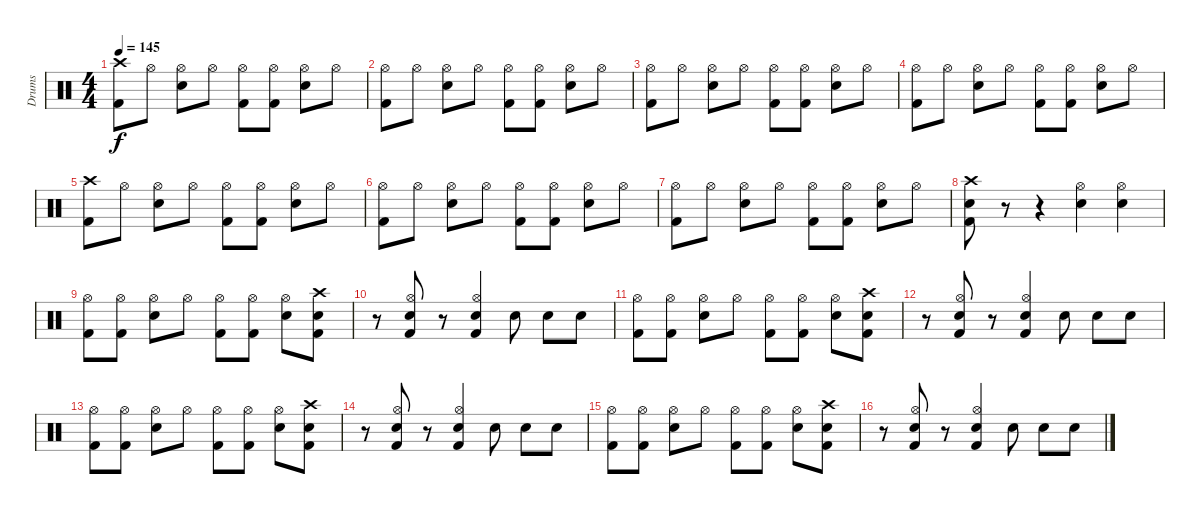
\track ("Drums" "Drums") {instrument percussion}
\staff {score}
\articulation defaults
\ts (4 4)
\tempo 145
\clef neutral
\ks c
("Crash high (hit)" "Kick (hit) 2").8{dy f} "Hi-Hat (open)".8 ("Hi-Hat (open)" "Electric Snare (hit)").8 "Hi-Hat (open)".8 ("Hi-Hat (open)" "Kick (hit) 2").8 ("Hi-Hat (open)" "Kick (hit) 2").8 ("Hi-Hat (open)" "Electric Snare (hit)").8 "Hi-Hat (open)".8 |
("Hi-Hat (open)" "Kick (hit) 2").8 "Hi-Hat (open)".8 ("Hi-Hat (open)" "Electric Snare (hit)").8 "Hi-Hat (open)".8 ("Hi-Hat (open)" "Kick (hit) 2").8 ("Hi-Hat (open)" "Kick (hit) 2").8 ("Hi-Hat (open)" "Electric Snare (hit)").8 "Hi-Hat (open)".8 |
("Hi-Hat (open)" "Kick (hit) 2").8 "Hi-Hat (open)".8 ("Hi-Hat (open)" "Electric Snare (hit)").8 "Hi-Hat (open)".8 ("Hi-Hat (open)" "Kick (hit) 2").8 ("Hi-Hat (open)" "Kick (hit) 2").8 ("Hi-Hat (open)" "Electric Snare (hit)").8 "Hi-Hat (open)".8 |
("Hi-Hat (open)" "Kick (hit) 2").8 "Hi-Hat (open)".8 ("Hi-Hat (open)" "Electric Snare (hit)").8 "Hi-Hat (open)".8 ("Hi-Hat (open)" "Kick (hit) 2").8 ("Hi-Hat (open)" "Kick (hit) 2").8 ("Hi-Hat (open)" "Electric Snare (hit)").8 "Hi-Hat (open)".8 |
("Crash high (hit)" "Kick (hit) 2").8 "Hi-Hat (open)".8 ("Hi-Hat (open)" "Electric Snare (hit)").8 "Hi-Hat (open)".8 ("Hi-Hat (open)" "Kick (hit) 2").8 ("Hi-Hat (open)" "Kick (hit) 2").8 ("Hi-Hat (open)" "Electric Snare (hit)").8 "Hi-Hat (open)".8 |
("Hi-Hat (open)" "Kick (hit) 2").8 "Hi-Hat (open)".8 ("Hi-Hat (open)" "Electric Snare (hit)").8 "Hi-Hat (open)".8 ("Hi-Hat (open)" "Kick (hit) 2").8 ("Hi-Hat (open)" "Kick (hit) 2").8 ("Hi-Hat (open)" "Electric Snare (hit)").8 "Hi-Hat (open)".8 |
("Hi-Hat (open)" "Kick (hit) 2").8 "Hi-Hat (open)".8 ("Hi-Hat (open)" "Electric Snare (hit)").8 "Hi-Hat (open)".8 ("Hi-Hat (open)" "Kick (hit) 2").8 ("Hi-Hat (open)" "Kick (hit) 2").8 ("Hi-Hat (open)" "Electric Snare (hit)").8 "Hi-Hat (open)".8 |
("Crash high (hit)" "Electric Snare (hit)" "Kick (hit) 2").8 r.8 r.4 ("Hi-Hat (open)" "Electric Snare (hit)").4 ("Hi-Hat (open)" "Electric Snare (hit)").4 |
("Hi-Hat (open)" "Kick (hit) 2").8 ("Hi-Hat (open)" "Kick (hit) 2").8 ("Hi-Hat (open)" "Electric Snare (hit)").8 "Hi-Hat (open)".8 ("Hi-Hat (open)" "Kick (hit) 2").8 ("Hi-Hat (open)" "Kick (hit) 2").8 ("Hi-Hat (open)" "Electric Snare (hit)").8 ("Crash high (hit)" "Electric Snare (hit)" "Kick (hit) 2").8 |
r.8 ("Hi-Hat (open)" "Electric Snare (hit)" "Kick (hit) 2").8 r.8 ("Hi-Hat (open)" "Electric Snare (hit)" "Kick (hit) 2").4 "Electric Snare (hit)".8 "Electric Snare (hit)".8 "Electric Snare (hit)".8 |
("Hi-Hat (open)" "Kick (hit) 2").8 ("Hi-Hat (open)" "Kick (hit) 2").8 ("Hi-Hat (open)" "Electric Snare (hit)").8 "Hi-Hat (open)".8 ("Hi-Hat (open)" "Kick (hit) 2").8 ("Hi-Hat (open)" "Kick (hit) 2").8 ("Hi-Hat (open)" "Electric Snare (hit)").8 ("Crash high (hit)" "Electric Snare (hit)" "Kick (hit) 2").8 |
r.8 ("Hi-Hat (open)" "Electric Snare (hit)" "Kick (hit) 2").8 r.8 ("Hi-Hat (open)" "Electric Snare (hit)" "Kick (hit) 2").4 "Electric Snare (hit)".8 "Electric Snare (hit)".8 "Electric Snare (hit)".8 |
("Hi-Hat (open)" "Kick (hit) 2").8 ("Hi-Hat (open)" "Kick (hit) 2").8 ("Hi-Hat (open)" "Electric Snare (hit)").8 "Hi-Hat (open)".8 ("Hi-Hat (open)" "Kick (hit) 2").8 ("Hi-Hat (open)" "Kick (hit) 2").8 ("Hi-Hat (open)" "Electric Snare (hit)").8 ("Crash high (hit)" "Electric Snare (hit)" "Kick (hit) 2").8 |
r.8 ("Hi-Hat (open)" "Electric Snare (hit)" "Kick (hit) 2").8 r.8 ("Hi-Hat (open)" "Electric Snare (hit)" "Kick (hit) 2").4 "Electric Snare (hit)".8 "Electric Snare (hit)".8 "Electric Snare (hit)".8 |
("Hi-Hat (open)" "Kick (hit) 2").8 ("Hi-Hat (open)" "Kick (hit) 2").8 ("Hi-Hat (open)" "Electric Snare (hit)").8 "Hi-Hat (open)".8 ("Hi-Hat (open)" "Kick (hit) 2").8 ("Hi-Hat (open)" "Kick (hit) 2").8 ("Hi-Hat (open)" "Electric Snare (hit)").8 ("Crash high (hit)" "Electric Snare (hit)" "Kick (hit) 2").8 |
r.8 ("Hi-Hat (open)" "Electric Snare (hit)" "Kick (hit) 2").8 r.8 ("Hi-Hat (open)" "Electric Snare (hit)" "Kick (hit) 2").4 "Electric Snare (hit)".8 "Electric Snare (hit)".8 "Electric Snare (hit)".8
